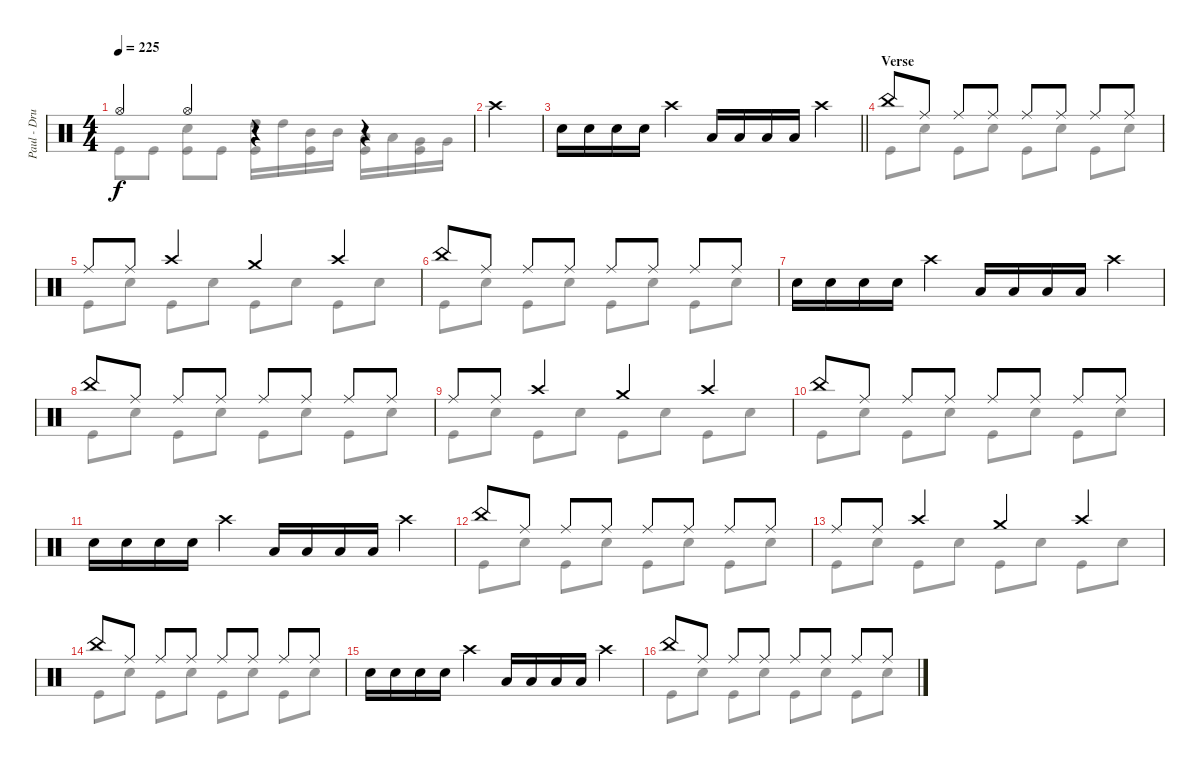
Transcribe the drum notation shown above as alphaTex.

\track ("Paul - Drums" "Paul - Dru") {instrument percussion}
\staff {score}
\articulation defaults
\voice
\ts (4 4)
\tempo 225
\clef neutral
\ks c "Hi-Hat (open)".4{dy f} "Hi-Hat (open)".4
r.4 r.4 |
"Crash high (hit)".2 |
\barLineRight lightlight "Snare (hit) 2".16 "Snare (hit) 2".16 "Snare (hit) 2".16 "Snare (hit) 2".16 "Crash high (hit)".4 "Low Tom (hit)".16 "Low Tom (hit)".16 "Low Tom (hit)".16 "Low Tom (hit)".16 "Crash high (hit)".4
|
\section ("" "Verse")
"China (hit)".8 "Ride (middle)".8 "Ride (middle)".8 "Ride (middle)".8 "Ride (middle)".8 "Ride (middle)".8 "Ride (middle)".8 "Ride (middle)".8 |
"Ride (middle)".8 "Ride (middle)".8 "Crash high (hit)".4 "Crash medium (hit)".4 "Crash high (hit)".4 |
"China (hit)".8 "Ride (middle)".8 "Ride (middle)".8 "Ride (middle)".8 "Ride (middle)".8 "Ride (middle)".8 "Ride (middle)".8 "Ride (middle)".8 |
"Snare (hit) 2".16 "Snare (hit) 2".16 "Snare (hit) 2".16 "Snare (hit) 2".16 "Crash high (hit)".4 "Low Tom (hit)".16 "Low Tom (hit)".16 "Low Tom (hit)".16 "Low Tom (hit)".16 "Crash high (hit)".4 |
"China (hit)".8 "Ride (middle)".8 "Ride (middle)".8 "Ride (middle)".8 "Ride (middle)".8 "Ride (middle)".8 "Ride (middle)".8 "Ride (middle)".8 |
"Ride (middle)".8 "Ride (middle)".8 "Crash high (hit)".4 "Crash medium (hit)".4 "Crash high (hit)".4 |
"China (hit)".8 "Ride (middle)".8 "Ride (middle)".8 "Ride (middle)".8 "Ride (middle)".8 "Ride (middle)".8 "Ride (middle)".8 "Ride (middle)".8 |
"Snare (hit) 2".16 "Snare (hit) 2".16 "Snare (hit) 2".16 "Snare (hit) 2".16 "Crash high (hit)".4 "Low Tom (hit)".16 "Low Tom (hit)".16 "Low Tom (hit)".16 "Low Tom (hit)".16 "Crash high (hit)".4 |
"China (hit)".8 "Ride (middle)".8 "Ride (middle)".8 "Ride (middle)".8 "Ride (middle)".8 "Ride (middle)".8 "Ride (middle)".8 "Ride (middle)".8 |
"Ride (middle)".8 "Ride (middle)".8 "Crash high (hit)".4 "Crash medium (hit)".4 "Crash high (hit)".4 |
"China (hit)".8 "Ride (middle)".8 "Ride (middle)".8 "Ride (middle)".8 "Ride (middle)".8 "Ride (middle)".8 "Ride (middle)".8 "Ride (middle)".8 |
"Snare (hit) 2".16 "Snare (hit) 2".16 "Snare (hit) 2".16 "Snare (hit) 2".16 "Crash high (hit)".4 "Low Tom (hit)".16 "Low Tom (hit)".16 "Low Tom (hit)".16 "Low Tom (hit)".16 "Crash high (hit)".4 |
"China (hit)".8 "Ride (middle)".8 "Ride (middle)".8 "Ride (middle)".8 "Ride (middle)".8 "Ride (middle)".8 "Ride (middle)".8 "Ride (middle)".8
\voice
\clef neutral
\ottava regular
\simile none
\ks c "Kick (hit)".8{dy f} "Kick (hit)".8
("Snare (hit) 2" "Kick (hit)").8 "Kick (hit)".8 ("High Tom (hit)" "Kick (hit)").16 "High Tom (hit)".16 ("Mid Tom (hit)" "Kick (hit)").16 "Mid Tom (hit)".16 ("Low Tom (hit)" "Kick (hit)").16 "Low Tom (hit)".16 ("Very Low Tom (hit)" "Kick (hit)").16 "Very Low Tom (hit)".16 |
|
\barLineRight lightlight
|
"Kick (hit)".8 "Snare (hit) 2".8 "Kick (hit)".8 "Snare (hit) 2".8 "Kick (hit)".8 "Snare (hit) 2".8 "Kick (hit)".8 "Snare (hit) 2".8 |
"Kick (hit)".8 "Snare (hit) 2".8 "Kick (hit)".8 "Snare (hit) 2".8 "Kick (hit)".8 "Snare (hit) 2".8 "Kick (hit)".8 "Snare (hit) 2".8 |
"Kick (hit)".8 "Snare (hit) 2".8 "Kick (hit)".8 "Snare (hit) 2".8 "Kick (hit)".8 "Snare (hit) 2".8 "Kick (hit)".8 "Snare (hit) 2".8 |
|
"Kick (hit)".8 "Snare (hit) 2".8 "Kick (hit)".8 "Snare (hit) 2".8 "Kick (hit)".8 "Snare (hit) 2".8 "Kick (hit)".8 "Snare (hit) 2".8 |
"Kick (hit)".8 "Snare (hit) 2".8 "Kick (hit)".8 "Snare (hit) 2".8 "Kick (hit)".8 "Snare (hit) 2".8 "Kick (hit)".8 "Snare (hit) 2".8 |
"Kick (hit)".8 "Snare (hit) 2".8 "Kick (hit)".8 "Snare (hit) 2".8 "Kick (hit)".8 "Snare (hit) 2".8 "Kick (hit)".8 "Snare (hit) 2".8 |
|
"Kick (hit)".8 "Snare (hit) 2".8 "Kick (hit)".8 "Snare (hit) 2".8 "Kick (hit)".8 "Snare (hit) 2".8 "Kick (hit)".8 "Snare (hit) 2".8 |
"Kick (hit)".8 "Snare (hit) 2".8 "Kick (hit)".8 "Snare (hit) 2".8 "Kick (hit)".8 "Snare (hit) 2".8 "Kick (hit)".8 "Snare (hit) 2".8 |
"Kick (hit)".8 "Snare (hit) 2".8 "Kick (hit)".8 "Snare (hit) 2".8 "Kick (hit)".8 "Snare (hit) 2".8 "Kick (hit)".8 "Snare (hit) 2".8 |
|
"Kick (hit)".8 "Snare (hit) 2".8 "Kick (hit)".8 "Snare (hit) 2".8 "Kick (hit)".8 "Snare (hit) 2".8 "Kick (hit)".8 "Snare (hit) 2".8
